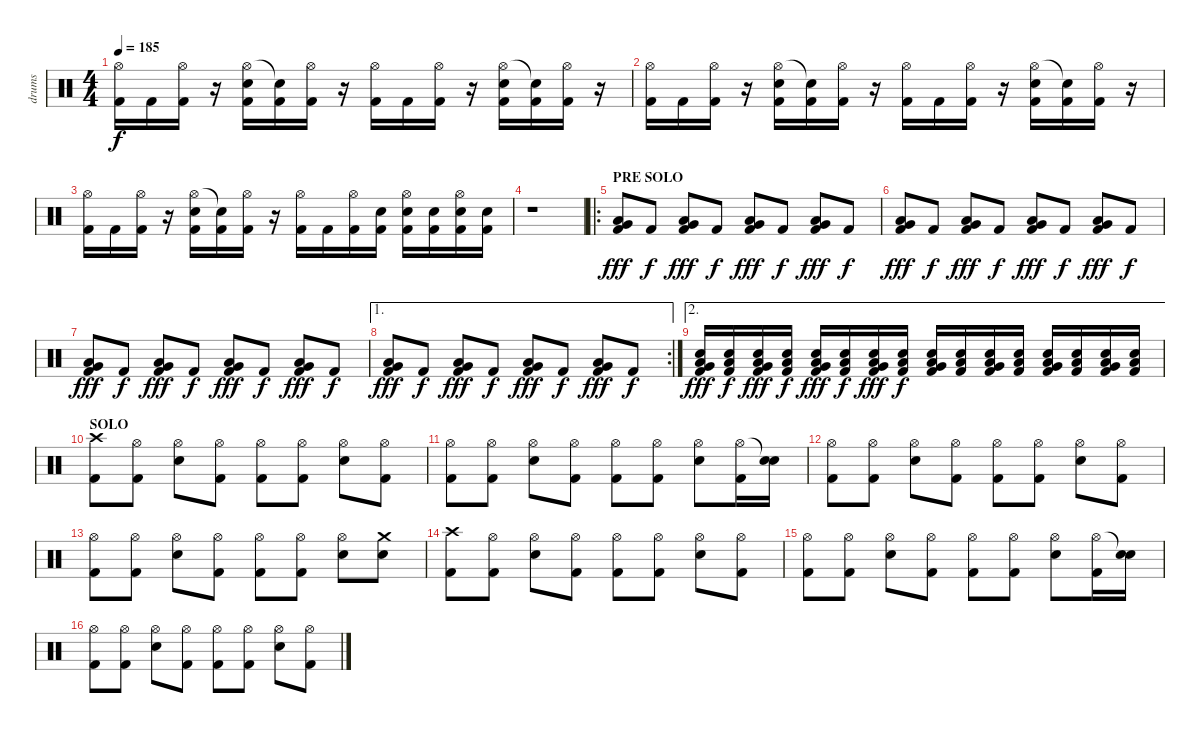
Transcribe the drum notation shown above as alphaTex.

\track ("drums" "drums") {instrument percussion}
\staff {score}
\articulation defaults
\ts (4 4)
\tempo 185
\clef neutral
\ks c
("Hi-Hat (open)" "Kick (hit) 2").16{dy f} "Kick (hit) 2".16 ("Hi-Hat (open)" "Kick (hit) 2").16 r.16 ("Hi-Hat (open)" "Electric Snare (hit)" "Kick (hit) 2").16 ("Snare (hit)"{t} "Kick (hit) 2").16 ("Hi-Hat (open)" "Kick (hit) 2").16 r.16 ("Hi-Hat (open)" "Kick (hit) 2").16 "Kick (hit) 2".16 ("Hi-Hat (open)" "Kick (hit) 2").16 r.16 ("Hi-Hat (open)" "Electric Snare (hit)" "Kick (hit) 2").16 ("Snare (hit)"{t} "Kick (hit) 2").16 ("Hi-Hat (open)" "Kick (hit) 2").16 r.16 |
("Hi-Hat (open)" "Kick (hit) 2").16 "Kick (hit) 2".16 ("Hi-Hat (open)" "Kick (hit) 2").16 r.16 ("Hi-Hat (open)" "Electric Snare (hit)" "Kick (hit) 2").16 ("Snare (hit)"{t} "Kick (hit) 2").16 ("Hi-Hat (open)" "Kick (hit) 2").16 r.16 ("Hi-Hat (open)" "Kick (hit) 2").16 "Kick (hit) 2".16 ("Hi-Hat (open)" "Kick (hit) 2").16 r.16 ("Hi-Hat (open)" "Electric Snare (hit)" "Kick (hit) 2").16 ("Snare (hit)"{t} "Kick (hit) 2").16 ("Hi-Hat (open)" "Kick (hit) 2").16 r.16 |
("Hi-Hat (open)" "Kick (hit) 2").16 "Kick (hit) 2".16 ("Hi-Hat (open)" "Kick (hit) 2").16 r.16 ("Hi-Hat (open)" "Electric Snare (hit)" "Kick (hit) 2").16 ("Snare (hit)"{t} "Kick (hit) 2").16 ("Hi-Hat (open)" "Kick (hit) 2").16 r.16 ("Hi-Hat (open)" "Kick (hit) 2").16 "Kick (hit) 2".16 ("Hi-Hat (open)" "Kick (hit) 2").16 ("Electric Snare (hit)" "Kick (hit) 2").16 ("Hi-Hat (open)" "Electric Snare (hit)" "Kick (hit) 2").16 ("Electric Snare (hit)" "Kick (hit) 2").16 ("Hi-Hat (open)" "Electric Snare (hit)" "Kick (hit) 2").16 ("Electric Snare (hit)" "Kick (hit) 2").16 |
r.1 |
\ro
\section ("" "PRE SOLO")
("Very Low Tom (hit)" "Low Floor Tom (hit)" "Kick (hit) 2").8{dy fff} "Kick (hit) 2".8{dy f} ("Very Low Tom (hit)" "Low Floor Tom (hit)" "Kick (hit) 2").8{dy fff} "Kick (hit) 2".8{dy f} ("Very Low Tom (hit)" "Low Floor Tom (hit)" "Kick (hit) 2").8{dy fff} "Kick (hit) 2".8{dy f} ("Very Low Tom (hit)" "Low Floor Tom (hit)" "Kick (hit) 2").8{dy fff} "Kick (hit) 2".8{dy f} |
("Very Low Tom (hit)" "Low Floor Tom (hit)" "Kick (hit) 2").8{dy fff} "Kick (hit) 2".8{dy f} ("Very Low Tom (hit)" "Low Floor Tom (hit)" "Kick (hit) 2").8{dy fff} "Kick (hit) 2".8{dy f} ("Very Low Tom (hit)" "Low Floor Tom (hit)" "Kick (hit) 2").8{dy fff} "Kick (hit) 2".8{dy f} ("Very Low Tom (hit)" "Low Floor Tom (hit)" "Kick (hit) 2").8{dy fff} "Kick (hit) 2".8{dy f} |
("Very Low Tom (hit)" "Low Floor Tom (hit)" "Kick (hit) 2").8{dy fff} "Kick (hit) 2".8{dy f} ("Very Low Tom (hit)" "Low Floor Tom (hit)" "Kick (hit) 2").8{dy fff} "Kick (hit) 2".8{dy f} ("Very Low Tom (hit)" "Low Floor Tom (hit)" "Kick (hit) 2").8{dy fff} "Kick (hit) 2".8{dy f} ("Very Low Tom (hit)" "Low Floor Tom (hit)" "Kick (hit) 2").8{dy fff} "Kick (hit) 2".8{dy f} |
\ae 1
\rc 2
("Very Low Tom (hit)" "Low Floor Tom (hit)" "Kick (hit) 2").8{dy fff} "Kick (hit) 2".8{dy f} ("Very Low Tom (hit)" "Low Floor Tom (hit)" "Kick (hit) 2").8{dy fff} "Kick (hit) 2".8{dy f} ("Very Low Tom (hit)" "Low Floor Tom (hit)" "Kick (hit) 2").8{dy fff} "Kick (hit) 2".8{dy f} ("Very Low Tom (hit)" "Low Floor Tom (hit)" "Kick (hit) 2").8{dy fff} "Kick (hit) 2".8{dy f} |
\ae 2
("Kick (hit) 2" "Very Low Tom (hit)" "Low Floor Tom (hit)" "Electric Snare (hit)").16{dy fff} ("Kick (hit) 2" "Low Floor Tom (hit)" "Electric Snare (hit)").16{dy f} ("Kick (hit) 2" "Very Low Tom (hit)" "Low Floor Tom (hit)" "Electric Snare (hit)").16{dy fff} ("Kick (hit) 2" "Low Floor Tom (hit)" "Electric Snare (hit)").16{dy f} ("Kick (hit) 2" "Very Low Tom (hit)" "Low Floor Tom (hit)" "Electric Snare (hit)").16{dy fff} ("Kick (hit) 2" "Low Floor Tom (hit)" "Electric Snare (hit)").16{dy f} ("Kick (hit) 2" "Very Low Tom (hit)" "Low Floor Tom (hit)" "Electric Snare (hit)").16{dy fff} ("Kick (hit) 2" "Low Floor Tom (hit)" "Electric Snare (hit)").16{dy f} ("Kick (hit) 2" "Very Low Tom (hit)" "Low Floor Tom (hit)" "Electric Snare (hit)").16 ("Kick (hit) 2" "Low Floor Tom (hit)" "Electric Snare (hit)").16 ("Kick (hit) 2" "Very Low Tom (hit)" "Low Floor Tom (hit)" "Electric Snare (hit)").16 ("Kick (hit) 2" "Low Floor Tom (hit)" "Electric Snare (hit)").16 ("Kick (hit) 2" "Very Low Tom (hit)" "Low Floor Tom (hit)" "Electric Snare (hit)").16 ("Kick (hit) 2" "Low Floor Tom (hit)" "Electric Snare (hit)").16 ("Kick (hit) 2" "Very Low Tom (hit)" "Low Floor Tom (hit)" "Electric Snare (hit)").16 ("Kick (hit) 2" "Low Floor Tom (hit)" "Electric Snare (hit)").16 |
\section ("" "SOLO")
("Crash high (hit)" "Kick (hit) 2").8 ("Hi-Hat (open)" "Kick (hit) 2").8 ("Hi-Hat (open)" "Electric Snare (hit)").8 ("Hi-Hat (open)" "Kick (hit) 2").8 ("Hi-Hat (open)" "Kick (hit) 2").8 ("Hi-Hat (open)" "Kick (hit) 2").8 ("Hi-Hat (open)" "Electric Snare (hit)").8 ("Hi-Hat (open)" "Kick (hit) 2").8 |
("Hi-Hat (open)" "Kick (hit) 2").8 ("Hi-Hat (open)" "Kick (hit) 2").8 ("Hi-Hat (open)" "Electric Snare (hit)").8 ("Hi-Hat (open)" "Kick (hit) 2").8 ("Hi-Hat (open)" "Kick (hit) 2").8 ("Hi-Hat (open)" "Kick (hit) 2").8 ("Hi-Hat (open)" "Electric Snare (hit)").8 ("Hi-Hat (open)" "Kick (hit) 2").16 ("Snare (hit)"{t} "Electric Snare (hit)").16 |
("Hi-Hat (open)" "Kick (hit) 2").8 ("Hi-Hat (open)" "Kick (hit) 2").8 ("Hi-Hat (open)" "Electric Snare (hit)").8 ("Hi-Hat (open)" "Kick (hit) 2").8 ("Hi-Hat (open)" "Kick (hit) 2").8 ("Hi-Hat (open)" "Kick (hit) 2").8 ("Hi-Hat (open)" "Electric Snare (hit)").8 ("Hi-Hat (open)" "Kick (hit) 2").8 |
("Hi-Hat (open)" "Kick (hit) 2").8 ("Hi-Hat (open)" "Kick (hit) 2").8 ("Hi-Hat (open)" "Electric Snare (hit)").8 ("Hi-Hat (open)" "Kick (hit) 2").8 ("Hi-Hat (open)" "Kick (hit) 2").8 ("Hi-Hat (open)" "Kick (hit) 2").8 ("Hi-Hat (open)" "Electric Snare (hit)").8 ("Crash medium (hit)" "Electric Snare (hit)").8 |
("Crash high (hit)" "Kick (hit) 2").8 ("Hi-Hat (open)" "Kick (hit) 2").8 ("Hi-Hat (open)" "Electric Snare (hit)").8 ("Hi-Hat (open)" "Kick (hit) 2").8 ("Hi-Hat (open)" "Kick (hit) 2").8 ("Hi-Hat (open)" "Kick (hit) 2").8 ("Hi-Hat (open)" "Electric Snare (hit)").8 ("Hi-Hat (open)" "Kick (hit) 2").8 |
("Hi-Hat (open)" "Kick (hit) 2").8 ("Hi-Hat (open)" "Kick (hit) 2").8 ("Hi-Hat (open)" "Electric Snare (hit)").8 ("Hi-Hat (open)" "Kick (hit) 2").8 ("Hi-Hat (open)" "Kick (hit) 2").8 ("Hi-Hat (open)" "Kick (hit) 2").8 ("Hi-Hat (open)" "Electric Snare (hit)").8 ("Hi-Hat (open)" "Kick (hit) 2").16 ("Snare (hit)"{t} "Electric Snare (hit)").16 |
("Hi-Hat (open)" "Kick (hit) 2").8 ("Hi-Hat (open)" "Kick (hit) 2").8 ("Hi-Hat (open)" "Electric Snare (hit)").8 ("Hi-Hat (open)" "Kick (hit) 2").8 ("Hi-Hat (open)" "Kick (hit) 2").8 ("Hi-Hat (open)" "Kick (hit) 2").8 ("Hi-Hat (open)" "Electric Snare (hit)").8 ("Hi-Hat (open)" "Kick (hit) 2").8
